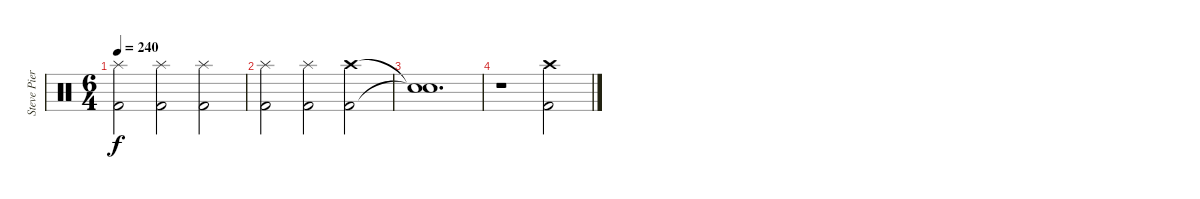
\track ("Steve Pierce" "Steve Pier") {instrument percussion}
\staff {score}
\articulation defaults
\ts (6 4)
\tempo 240
\clef neutral
\ks c
("Splash (hit)" "Kick (hit) 2").2{dy f} ("Splash (hit)" "Kick (hit) 2").2 ("Splash (hit)" "Kick (hit) 2").2 |
("Splash (hit)" "Kick (hit) 2").2 ("Splash (hit)" "Kick (hit) 2").2 ("Crash high (hit)" "Kick (hit) 2").2 |
("Snare (hit)"{t} "Snare (hit)"{t}).1{d} |
r.1 ("Crash high (hit)" "Kick (hit) 2").2
